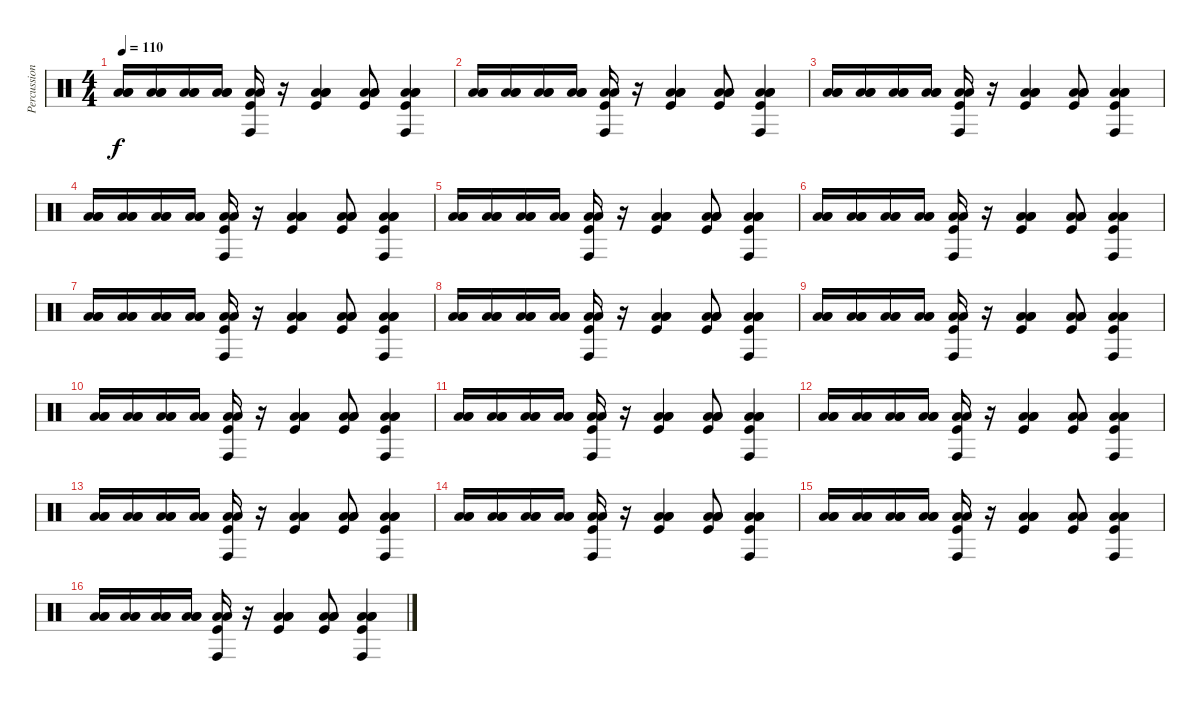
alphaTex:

\track ("Percussion 1" "Percussion") {instrument percussion}
\staff {score}
\articulation defaults
\ts (4 4)
\tempo 110
\clef neutral
\ks c
("Low Floor Tom (hit)" "Low Floor Tom (hit)" "Low Tom (hit)").16{dy f} ("Low Floor Tom (hit)" "Low Floor Tom (hit)" "Low Tom (hit)").16 ("Low Floor Tom (hit)" "Low Floor Tom (hit)" "Low Tom (hit)").16 ("Low Floor Tom (hit)" "Low Floor Tom (hit)" "Low Tom (hit)").16 ("Low Floor Tom (hit)" "Low Floor Tom (hit)" "Conga high (hit)" "Kick (hit)").16 r.16 ("Low Floor Tom (hit)" "Low Floor Tom (hit)" "Low Tom (hit)" "Kick (hit)").4 ("Low Floor Tom (hit)" "Low Tom (hit)" "Low Floor Tom (hit)" "Kick (hit)").8 ("Low Floor Tom (hit)" "Low Tom (hit)" "Low Floor Tom (hit)" "Conga high (hit)" "Kick (hit)").4 |
("Low Floor Tom (hit)" "Low Floor Tom (hit)" "Low Tom (hit)").16 ("Low Floor Tom (hit)" "Low Floor Tom (hit)" "Low Tom (hit)").16 ("Low Floor Tom (hit)" "Low Floor Tom (hit)" "Low Tom (hit)").16 ("Low Floor Tom (hit)" "Low Floor Tom (hit)" "Low Tom (hit)").16 ("Low Floor Tom (hit)" "Low Floor Tom (hit)" "Conga high (hit)" "Kick (hit)").16 r.16 ("Low Floor Tom (hit)" "Low Floor Tom (hit)" "Low Tom (hit)" "Kick (hit)").4 ("Low Floor Tom (hit)" "Low Tom (hit)" "Low Floor Tom (hit)" "Kick (hit)").8 ("Low Floor Tom (hit)" "Low Tom (hit)" "Low Floor Tom (hit)" "Conga high (hit)" "Kick (hit)").4 |
("Low Floor Tom (hit)" "Low Floor Tom (hit)" "Low Tom (hit)").16 ("Low Floor Tom (hit)" "Low Floor Tom (hit)" "Low Tom (hit)").16 ("Low Floor Tom (hit)" "Low Floor Tom (hit)" "Low Tom (hit)").16 ("Low Floor Tom (hit)" "Low Floor Tom (hit)" "Low Tom (hit)").16 ("Low Floor Tom (hit)" "Low Floor Tom (hit)" "Conga high (hit)" "Kick (hit)").16 r.16 ("Low Floor Tom (hit)" "Low Floor Tom (hit)" "Low Tom (hit)" "Kick (hit)").4 ("Low Floor Tom (hit)" "Low Tom (hit)" "Low Floor Tom (hit)" "Kick (hit)").8 ("Low Floor Tom (hit)" "Low Tom (hit)" "Low Floor Tom (hit)" "Conga high (hit)" "Kick (hit)").4 |
("Low Floor Tom (hit)" "Low Floor Tom (hit)" "Low Tom (hit)").16 ("Low Floor Tom (hit)" "Low Floor Tom (hit)" "Low Tom (hit)").16 ("Low Floor Tom (hit)" "Low Floor Tom (hit)" "Low Tom (hit)").16 ("Low Floor Tom (hit)" "Low Floor Tom (hit)" "Low Tom (hit)").16 ("Low Floor Tom (hit)" "Low Floor Tom (hit)" "Conga high (hit)" "Kick (hit)").16 r.16 ("Low Floor Tom (hit)" "Low Floor Tom (hit)" "Low Tom (hit)" "Kick (hit)").4 ("Low Floor Tom (hit)" "Low Tom (hit)" "Low Floor Tom (hit)" "Kick (hit)").8 ("Low Floor Tom (hit)" "Low Tom (hit)" "Low Floor Tom (hit)" "Conga high (hit)" "Kick (hit)").4 |
("Low Floor Tom (hit)" "Low Floor Tom (hit)" "Low Tom (hit)").16 ("Low Floor Tom (hit)" "Low Floor Tom (hit)" "Low Tom (hit)").16 ("Low Floor Tom (hit)" "Low Floor Tom (hit)" "Low Tom (hit)").16 ("Low Floor Tom (hit)" "Low Floor Tom (hit)" "Low Tom (hit)").16 ("Low Floor Tom (hit)" "Low Floor Tom (hit)" "Conga high (hit)" "Kick (hit)").16 r.16 ("Low Floor Tom (hit)" "Low Floor Tom (hit)" "Low Tom (hit)" "Kick (hit)").4 ("Low Floor Tom (hit)" "Low Tom (hit)" "Low Floor Tom (hit)" "Kick (hit)").8 ("Low Floor Tom (hit)" "Low Tom (hit)" "Low Floor Tom (hit)" "Conga high (hit)" "Kick (hit)").4 |
("Low Floor Tom (hit)" "Low Floor Tom (hit)" "Low Tom (hit)").16 ("Low Floor Tom (hit)" "Low Floor Tom (hit)" "Low Tom (hit)").16 ("Low Floor Tom (hit)" "Low Floor Tom (hit)" "Low Tom (hit)").16 ("Low Floor Tom (hit)" "Low Floor Tom (hit)" "Low Tom (hit)").16 ("Low Floor Tom (hit)" "Low Floor Tom (hit)" "Conga high (hit)" "Kick (hit)").16 r.16 ("Low Floor Tom (hit)" "Low Floor Tom (hit)" "Low Tom (hit)" "Kick (hit)").4 ("Low Floor Tom (hit)" "Low Tom (hit)" "Low Floor Tom (hit)" "Kick (hit)").8 ("Low Floor Tom (hit)" "Low Tom (hit)" "Low Floor Tom (hit)" "Conga high (hit)" "Kick (hit)").4 |
("Low Floor Tom (hit)" "Low Floor Tom (hit)" "Low Tom (hit)").16 ("Low Floor Tom (hit)" "Low Floor Tom (hit)" "Low Tom (hit)").16 ("Low Floor Tom (hit)" "Low Floor Tom (hit)" "Low Tom (hit)").16 ("Low Floor Tom (hit)" "Low Floor Tom (hit)" "Low Tom (hit)").16 ("Low Floor Tom (hit)" "Low Floor Tom (hit)" "Conga high (hit)" "Kick (hit)").16 r.16 ("Low Floor Tom (hit)" "Low Floor Tom (hit)" "Low Tom (hit)" "Kick (hit)").4 ("Low Floor Tom (hit)" "Low Tom (hit)" "Low Floor Tom (hit)" "Kick (hit)").8 ("Low Floor Tom (hit)" "Low Tom (hit)" "Low Floor Tom (hit)" "Conga high (hit)" "Kick (hit)").4 |
("Low Floor Tom (hit)" "Low Floor Tom (hit)" "Low Tom (hit)").16 ("Low Floor Tom (hit)" "Low Floor Tom (hit)" "Low Tom (hit)").16 ("Low Floor Tom (hit)" "Low Floor Tom (hit)" "Low Tom (hit)").16 ("Low Floor Tom (hit)" "Low Floor Tom (hit)" "Low Tom (hit)").16 ("Low Floor Tom (hit)" "Low Floor Tom (hit)" "Conga high (hit)" "Kick (hit)").16 r.16 ("Low Floor Tom (hit)" "Low Floor Tom (hit)" "Low Tom (hit)" "Kick (hit)").4 ("Low Floor Tom (hit)" "Low Tom (hit)" "Low Floor Tom (hit)" "Kick (hit)").8 ("Low Floor Tom (hit)" "Low Tom (hit)" "Low Floor Tom (hit)" "Conga high (hit)" "Kick (hit)").4 |
("Low Floor Tom (hit)" "Low Floor Tom (hit)" "Low Tom (hit)").16 ("Low Floor Tom (hit)" "Low Floor Tom (hit)" "Low Tom (hit)").16 ("Low Floor Tom (hit)" "Low Floor Tom (hit)" "Low Tom (hit)").16 ("Low Floor Tom (hit)" "Low Floor Tom (hit)" "Low Tom (hit)").16 ("Low Floor Tom (hit)" "Low Floor Tom (hit)" "Conga high (hit)" "Kick (hit)").16 r.16 ("Low Floor Tom (hit)" "Low Floor Tom (hit)" "Low Tom (hit)" "Kick (hit)").4 ("Low Floor Tom (hit)" "Low Tom (hit)" "Low Floor Tom (hit)" "Kick (hit)").8 ("Low Floor Tom (hit)" "Low Tom (hit)" "Low Floor Tom (hit)" "Conga high (hit)" "Kick (hit)").4 |
("Low Floor Tom (hit)" "Low Floor Tom (hit)" "Low Tom (hit)").16 ("Low Floor Tom (hit)" "Low Floor Tom (hit)" "Low Tom (hit)").16 ("Low Floor Tom (hit)" "Low Floor Tom (hit)" "Low Tom (hit)").16 ("Low Floor Tom (hit)" "Low Floor Tom (hit)" "Low Tom (hit)").16 ("Low Floor Tom (hit)" "Low Floor Tom (hit)" "Conga high (hit)" "Kick (hit)").16 r.16 ("Low Floor Tom (hit)" "Low Floor Tom (hit)" "Low Tom (hit)" "Kick (hit)").4 ("Low Floor Tom (hit)" "Low Tom (hit)" "Low Floor Tom (hit)" "Kick (hit)").8 ("Low Floor Tom (hit)" "Low Tom (hit)" "Low Floor Tom (hit)" "Conga high (hit)" "Kick (hit)").4 |
("Low Floor Tom (hit)" "Low Floor Tom (hit)" "Low Tom (hit)").16 ("Low Floor Tom (hit)" "Low Floor Tom (hit)" "Low Tom (hit)").16 ("Low Floor Tom (hit)" "Low Floor Tom (hit)" "Low Tom (hit)").16 ("Low Floor Tom (hit)" "Low Floor Tom (hit)" "Low Tom (hit)").16 ("Low Floor Tom (hit)" "Low Floor Tom (hit)" "Conga high (hit)" "Kick (hit)").16 r.16 ("Low Floor Tom (hit)" "Low Floor Tom (hit)" "Low Tom (hit)" "Kick (hit)").4 ("Low Floor Tom (hit)" "Low Tom (hit)" "Low Floor Tom (hit)" "Kick (hit)").8 ("Low Floor Tom (hit)" "Low Tom (hit)" "Low Floor Tom (hit)" "Conga high (hit)" "Kick (hit)").4 |
("Low Floor Tom (hit)" "Low Floor Tom (hit)" "Low Tom (hit)").16 ("Low Floor Tom (hit)" "Low Floor Tom (hit)" "Low Tom (hit)").16 ("Low Floor Tom (hit)" "Low Floor Tom (hit)" "Low Tom (hit)").16 ("Low Floor Tom (hit)" "Low Floor Tom (hit)" "Low Tom (hit)").16 ("Low Floor Tom (hit)" "Low Floor Tom (hit)" "Conga high (hit)" "Kick (hit)").16 r.16 ("Low Floor Tom (hit)" "Low Floor Tom (hit)" "Low Tom (hit)" "Kick (hit)").4 ("Low Floor Tom (hit)" "Low Tom (hit)" "Low Floor Tom (hit)" "Kick (hit)").8 ("Low Floor Tom (hit)" "Low Tom (hit)" "Low Floor Tom (hit)" "Conga high (hit)" "Kick (hit)").4 |
("Low Floor Tom (hit)" "Low Floor Tom (hit)" "Low Tom (hit)").16 ("Low Floor Tom (hit)" "Low Floor Tom (hit)" "Low Tom (hit)").16 ("Low Floor Tom (hit)" "Low Floor Tom (hit)" "Low Tom (hit)").16 ("Low Floor Tom (hit)" "Low Floor Tom (hit)" "Low Tom (hit)").16 ("Low Floor Tom (hit)" "Low Floor Tom (hit)" "Conga high (hit)" "Kick (hit)").16 r.16 ("Low Floor Tom (hit)" "Low Floor Tom (hit)" "Low Tom (hit)" "Kick (hit)").4 ("Low Floor Tom (hit)" "Low Tom (hit)" "Low Floor Tom (hit)" "Kick (hit)").8 ("Low Floor Tom (hit)" "Low Tom (hit)" "Low Floor Tom (hit)" "Conga high (hit)" "Kick (hit)").4 |
("Low Floor Tom (hit)" "Low Floor Tom (hit)" "Low Tom (hit)").16 ("Low Floor Tom (hit)" "Low Floor Tom (hit)" "Low Tom (hit)").16 ("Low Floor Tom (hit)" "Low Floor Tom (hit)" "Low Tom (hit)").16 ("Low Floor Tom (hit)" "Low Floor Tom (hit)" "Low Tom (hit)").16 ("Low Floor Tom (hit)" "Low Floor Tom (hit)" "Conga high (hit)" "Kick (hit)").16 r.16 ("Low Floor Tom (hit)" "Low Floor Tom (hit)" "Low Tom (hit)" "Kick (hit)").4 ("Low Floor Tom (hit)" "Low Tom (hit)" "Low Floor Tom (hit)" "Kick (hit)").8 ("Low Floor Tom (hit)" "Low Tom (hit)" "Low Floor Tom (hit)" "Conga high (hit)" "Kick (hit)").4 |
("Low Floor Tom (hit)" "Low Floor Tom (hit)" "Low Tom (hit)").16 ("Low Floor Tom (hit)" "Low Floor Tom (hit)" "Low Tom (hit)").16 ("Low Floor Tom (hit)" "Low Floor Tom (hit)" "Low Tom (hit)").16 ("Low Floor Tom (hit)" "Low Floor Tom (hit)" "Low Tom (hit)").16 ("Low Floor Tom (hit)" "Low Floor Tom (hit)" "Conga high (hit)" "Kick (hit)").16 r.16 ("Low Floor Tom (hit)" "Low Floor Tom (hit)" "Low Tom (hit)" "Kick (hit)").4 ("Low Floor Tom (hit)" "Low Tom (hit)" "Low Floor Tom (hit)" "Kick (hit)").8 ("Low Floor Tom (hit)" "Low Tom (hit)" "Low Floor Tom (hit)" "Conga high (hit)" "Kick (hit)").4 |
("Low Floor Tom (hit)" "Low Floor Tom (hit)" "Low Tom (hit)").16 ("Low Floor Tom (hit)" "Low Floor Tom (hit)" "Low Tom (hit)").16 ("Low Floor Tom (hit)" "Low Floor Tom (hit)" "Low Tom (hit)").16 ("Low Floor Tom (hit)" "Low Floor Tom (hit)" "Low Tom (hit)").16 ("Low Floor Tom (hit)" "Low Floor Tom (hit)" "Conga high (hit)" "Kick (hit)").16 r.16 ("Low Floor Tom (hit)" "Low Floor Tom (hit)" "Low Tom (hit)" "Kick (hit)").4 ("Low Floor Tom (hit)" "Low Tom (hit)" "Low Floor Tom (hit)" "Kick (hit)").8 ("Low Floor Tom (hit)" "Low Tom (hit)" "Low Floor Tom (hit)" "Conga high (hit)" "Kick (hit)").4
